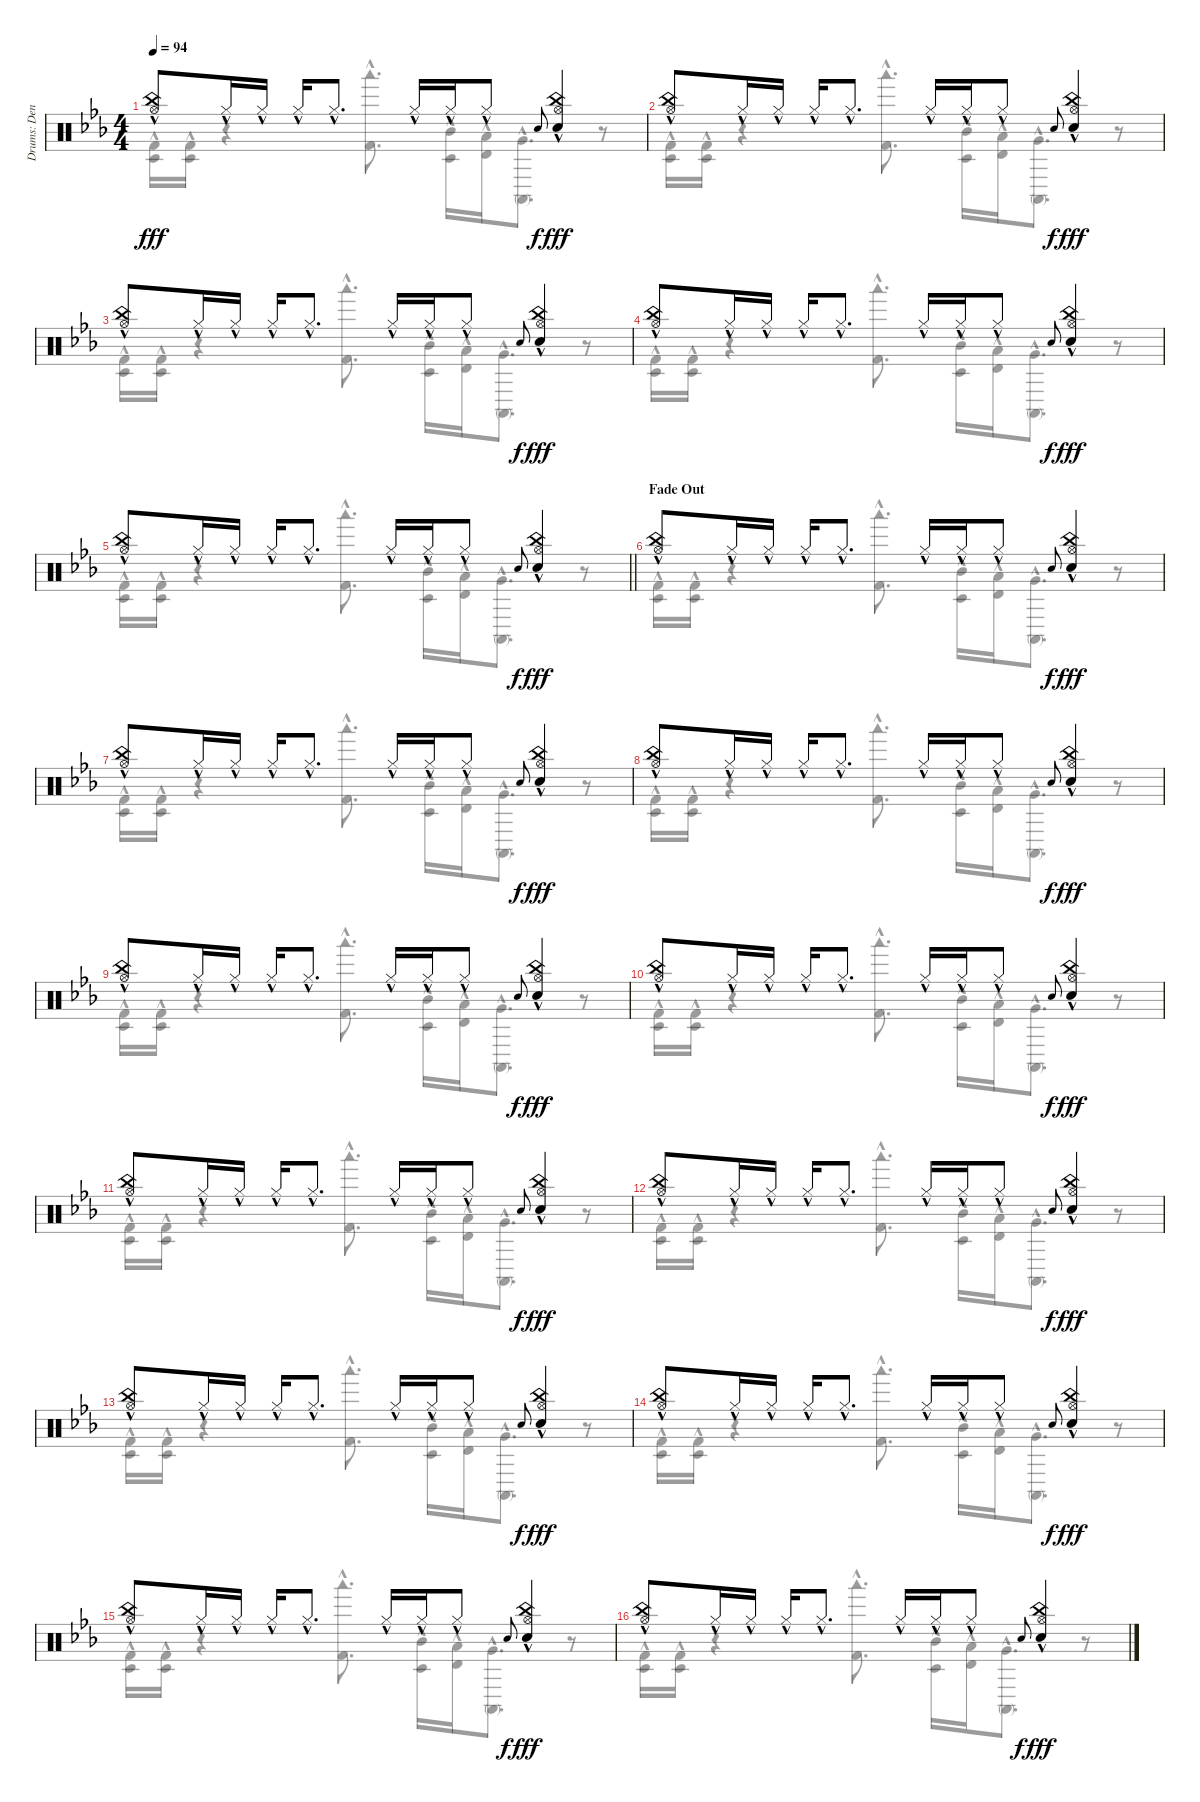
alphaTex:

\track ("Drums: Denny" "Drums: Den") {instrument percussion}
\staff {score}
\articulation defaults
\voice
\ts (4 4)
\tempo 94
\clef neutral
\ks eb
("China (hit)"{hac} "Hi-Hat (open)"{hac}).8{dy fff} "Hi-Hat (closed)"{hac}.16 "Hi-Hat (closed)"{hac}.16 "Hi-Hat (closed)"{hac}.16 "Hi-Hat (closed)"{hac}.8{d} "Hi-Hat (closed)"{hac}.16 "Hi-Hat (closed)"{hac}.16 "Hi-Hat (closed)"{hac}.8 "Electric Snare (hit)".8{gr onbeat dy f} ("China (hit)"{hac} "Hi-Hat (open)"{hac} "Snare (hit) 2"{hac}).4{dy fff} |
("China (hit)"{hac} "Hi-Hat (open)"{hac}).8 "Hi-Hat (closed)"{hac}.16 "Hi-Hat (closed)"{hac}.16 "Hi-Hat (closed)"{hac}.16 "Hi-Hat (closed)"{hac}.8{d} "Hi-Hat (closed)"{hac}.16 "Hi-Hat (closed)"{hac}.16 "Hi-Hat (closed)"{hac}.8 "Electric Snare (hit)".8{gr onbeat dy f} ("China (hit)"{hac} "Hi-Hat (open)"{hac} "Snare (hit) 2"{hac}).4{dy fff} |
("China (hit)"{hac} "Hi-Hat (open)"{hac}).8 "Hi-Hat (closed)"{hac}.16 "Hi-Hat (closed)"{hac}.16 "Hi-Hat (closed)"{hac}.16 "Hi-Hat (closed)"{hac}.8{d} "Hi-Hat (closed)"{hac}.16 "Hi-Hat (closed)"{hac}.16 "Hi-Hat (closed)"{hac}.8 "Electric Snare (hit)".8{gr onbeat dy f} ("China (hit)"{hac} "Hi-Hat (open)"{hac} "Snare (hit) 2"{hac}).4{dy fff} |
("China (hit)"{hac} "Hi-Hat (open)"{hac}).8 "Hi-Hat (closed)"{hac}.16 "Hi-Hat (closed)"{hac}.16 "Hi-Hat (closed)"{hac}.16 "Hi-Hat (closed)"{hac}.8{d} "Hi-Hat (closed)"{hac}.16 "Hi-Hat (closed)"{hac}.16 "Hi-Hat (closed)"{hac}.8 "Electric Snare (hit)".8{gr onbeat dy f} ("China (hit)"{hac} "Hi-Hat (open)"{hac} "Snare (hit) 2"{hac}).4{dy fff} |
\barLineRight lightlight
("China (hit)"{hac} "Hi-Hat (open)"{hac}).8 "Hi-Hat (closed)"{hac}.16 "Hi-Hat (closed)"{hac}.16 "Hi-Hat (closed)"{hac}.16 "Hi-Hat (closed)"{hac}.8{d} "Hi-Hat (closed)"{hac}.16 "Hi-Hat (closed)"{hac}.16 "Hi-Hat (closed)"{hac}.8 "Electric Snare (hit)".8{gr onbeat dy f} ("China (hit)"{hac} "Hi-Hat (open)"{hac} "Snare (hit) 2"{hac}).4{dy fff} |
\section ("" "Fade Out")
("China (hit)"{hac} "Hi-Hat (open)"{hac}).8{volume 12} "Hi-Hat (closed)"{hac}.16 "Hi-Hat (closed)"{hac}.16 "Hi-Hat (closed)"{hac}.16 "Hi-Hat (closed)"{hac}.8{d} "Hi-Hat (closed)"{hac}.16 "Hi-Hat (closed)"{hac}.16 "Hi-Hat (closed)"{hac}.8 "Electric Snare (hit)".8{gr onbeat dy f} ("China (hit)"{hac} "Hi-Hat (open)"{hac} "Snare (hit) 2"{hac}).4{dy fff} |
("China (hit)"{hac} "Hi-Hat (open)"{hac}).8 "Hi-Hat (closed)"{hac}.16 "Hi-Hat (closed)"{hac}.16 "Hi-Hat (closed)"{hac}.16 "Hi-Hat (closed)"{hac}.8{d} "Hi-Hat (closed)"{hac}.16 "Hi-Hat (closed)"{hac}.16 "Hi-Hat (closed)"{hac}.8 "Electric Snare (hit)".8{gr onbeat dy f} ("China (hit)"{hac} "Hi-Hat (open)"{hac} "Snare (hit) 2"{hac}).4{dy fff} |
("China (hit)"{hac} "Hi-Hat (open)"{hac}).8 "Hi-Hat (closed)"{hac}.16 "Hi-Hat (closed)"{hac}.16 "Hi-Hat (closed)"{hac}.16 "Hi-Hat (closed)"{hac}.8{d} "Hi-Hat (closed)"{hac}.16 "Hi-Hat (closed)"{hac}.16 "Hi-Hat (closed)"{hac}.8 "Electric Snare (hit)".8{gr onbeat dy f} ("China (hit)"{hac} "Hi-Hat (open)"{hac} "Snare (hit) 2"{hac}).4{dy fff} |
("China (hit)"{hac} "Hi-Hat (open)"{hac}).8 "Hi-Hat (closed)"{hac}.16 "Hi-Hat (closed)"{hac}.16 "Hi-Hat (closed)"{hac}.16 "Hi-Hat (closed)"{hac}.8{d} "Hi-Hat (closed)"{hac}.16 "Hi-Hat (closed)"{hac}.16 "Hi-Hat (closed)"{hac}.8 "Electric Snare (hit)".8{gr onbeat dy f} ("China (hit)"{hac} "Hi-Hat (open)"{hac} "Snare (hit) 2"{hac}).4{dy fff} |
("China (hit)"{hac} "Hi-Hat (open)"{hac}).8{volume 8} "Hi-Hat (closed)"{hac}.16 "Hi-Hat (closed)"{hac}.16 "Hi-Hat (closed)"{hac}.16 "Hi-Hat (closed)"{hac}.8{d} "Hi-Hat (closed)"{hac}.16 "Hi-Hat (closed)"{hac}.16 "Hi-Hat (closed)"{hac}.8 "Electric Snare (hit)".8{gr onbeat dy f} ("China (hit)"{hac} "Hi-Hat (open)"{hac} "Snare (hit) 2"{hac}).4{dy fff} |
("China (hit)"{hac} "Hi-Hat (open)"{hac}).8 "Hi-Hat (closed)"{hac}.16 "Hi-Hat (closed)"{hac}.16 "Hi-Hat (closed)"{hac}.16 "Hi-Hat (closed)"{hac}.8{d} "Hi-Hat (closed)"{hac}.16 "Hi-Hat (closed)"{hac}.16 "Hi-Hat (closed)"{hac}.8 "Electric Snare (hit)".8{gr onbeat dy f} ("China (hit)"{hac} "Hi-Hat (open)"{hac} "Snare (hit) 2"{hac}).4{dy fff} |
("China (hit)"{hac} "Hi-Hat (open)"{hac}).8 "Hi-Hat (closed)"{hac}.16 "Hi-Hat (closed)"{hac}.16 "Hi-Hat (closed)"{hac}.16 "Hi-Hat (closed)"{hac}.8{d} "Hi-Hat (closed)"{hac}.16 "Hi-Hat (closed)"{hac}.16 "Hi-Hat (closed)"{hac}.8 "Electric Snare (hit)".8{gr onbeat dy f} ("China (hit)"{hac} "Hi-Hat (open)"{hac} "Snare (hit) 2"{hac}).4{dy fff} |
("China (hit)"{hac} "Hi-Hat (open)"{hac}).8 "Hi-Hat (closed)"{hac}.16 "Hi-Hat (closed)"{hac}.16 "Hi-Hat (closed)"{hac}.16 "Hi-Hat (closed)"{hac}.8{d} "Hi-Hat (closed)"{hac}.16 "Hi-Hat (closed)"{hac}.16 "Hi-Hat (closed)"{hac}.8 "Electric Snare (hit)".8{gr onbeat dy f} ("China (hit)"{hac} "Hi-Hat (open)"{hac} "Snare (hit) 2"{hac}).4{dy fff} |
("China (hit)"{hac} "Hi-Hat (open)"{hac}).8{volume 4} "Hi-Hat (closed)"{hac}.16 "Hi-Hat (closed)"{hac}.16 "Hi-Hat (closed)"{hac}.16 "Hi-Hat (closed)"{hac}.8{d} "Hi-Hat (closed)"{hac}.16 "Hi-Hat (closed)"{hac}.16 "Hi-Hat (closed)"{hac}.8 "Electric Snare (hit)".8{gr onbeat dy f} ("China (hit)"{hac} "Hi-Hat (open)"{hac} "Snare (hit) 2"{hac}).4{dy fff} |
("China (hit)"{hac} "Hi-Hat (open)"{hac}).8 "Hi-Hat (closed)"{hac}.16 "Hi-Hat (closed)"{hac}.16 "Hi-Hat (closed)"{hac}.16 "Hi-Hat (closed)"{hac}.8{d} "Hi-Hat (closed)"{hac}.16 "Hi-Hat (closed)"{hac}.16 "Hi-Hat (closed)"{hac}.8 "Electric Snare (hit)".8{gr onbeat dy f} ("China (hit)"{hac} "Hi-Hat (open)"{hac} "Snare (hit) 2"{hac}).4{dy fff} |
("China (hit)"{hac} "Hi-Hat (open)"{hac}).8 "Hi-Hat (closed)"{hac}.16 "Hi-Hat (closed)"{hac}.16 "Hi-Hat (closed)"{hac}.16 "Hi-Hat (closed)"{hac}.8{d} "Hi-Hat (closed)"{hac}.16 "Hi-Hat (closed)"{hac}.16 "Hi-Hat (closed)"{hac}.8 "Electric Snare (hit)".8{gr onbeat dy f} ("China (hit)"{hac} "Hi-Hat (open)"{hac} "Snare (hit) 2"{hac}).4{dy fff}
\voice
\clef neutral
\ottava regular
\simile none
\ks eb
("Kick (hit) 2"{hac} "Timbale low (hit)"{hac}).16{dy fff} ("Kick (hit) 2"{hac} "Timbale low (hit)"{hac}).16 r.4 ("Kick (hit) 2"{hac} "Woodblock low (hit)"{hac}).8{d} ("Mid Tom (hit)"{hac} "Timbale low (hit)"{hac}).16 ("Low Tom (hit)"{hac} "Timbale high (hit)"{hac}).16 ("Very Low Tom (hit)"{hac} "Conga high (mute)"{hac}).8{d} r.8 |
("Kick (hit) 2"{hac} "Timbale low (hit)"{hac}).16 ("Kick (hit) 2"{hac} "Timbale low (hit)"{hac}).16 r.4 ("Kick (hit) 2"{hac} "Woodblock low (hit)"{hac}).8{d} ("Mid Tom (hit)"{hac} "Timbale low (hit)"{hac}).16 ("Low Tom (hit)"{hac} "Timbale high (hit)"{hac}).16 ("Very Low Tom (hit)"{hac} "Conga high (mute)"{hac}).8{d} r.8 |
("Kick (hit) 2"{hac} "Timbale low (hit)"{hac}).16 ("Kick (hit) 2"{hac} "Timbale low (hit)"{hac}).16 r.4 ("Kick (hit) 2"{hac} "Woodblock low (hit)"{hac}).8{d} ("Mid Tom (hit)"{hac} "Timbale low (hit)"{hac}).16 ("Low Tom (hit)"{hac} "Timbale high (hit)"{hac}).16 ("Very Low Tom (hit)"{hac} "Conga high (mute)"{hac}).8{d} r.8 |
("Kick (hit) 2"{hac} "Timbale low (hit)"{hac}).16 ("Kick (hit) 2"{hac} "Timbale low (hit)"{hac}).16 r.4 ("Kick (hit) 2"{hac} "Woodblock low (hit)"{hac}).8{d} ("Mid Tom (hit)"{hac} "Timbale low (hit)"{hac}).16 ("Low Tom (hit)"{hac} "Timbale high (hit)"{hac}).16 ("Very Low Tom (hit)"{hac} "Conga high (mute)"{hac}).8{d} r.8 |
\barLineRight lightlight
("Kick (hit) 2"{hac} "Timbale low (hit)"{hac}).16 ("Kick (hit) 2"{hac} "Timbale low (hit)"{hac}).16 r.4 ("Kick (hit) 2"{hac} "Woodblock low (hit)"{hac}).8{d} ("Mid Tom (hit)"{hac} "Timbale low (hit)"{hac}).16 ("Low Tom (hit)"{hac} "Timbale high (hit)"{hac}).16 ("Very Low Tom (hit)"{hac} "Conga high (mute)"{hac}).8{d} r.8 |
("Kick (hit) 2"{hac} "Timbale low (hit)"{hac}).16 ("Kick (hit) 2"{hac} "Timbale low (hit)"{hac}).16 r.4 ("Kick (hit) 2"{hac} "Woodblock low (hit)"{hac}).8{d} ("Mid Tom (hit)"{hac} "Timbale low (hit)"{hac}).16 ("Low Tom (hit)"{hac} "Timbale high (hit)"{hac}).16 ("Very Low Tom (hit)"{hac} "Conga high (mute)"{hac}).8{d} r.8 |
("Kick (hit) 2"{hac} "Timbale low (hit)"{hac}).16 ("Kick (hit) 2"{hac} "Timbale low (hit)"{hac}).16 r.4 ("Kick (hit) 2"{hac} "Woodblock low (hit)"{hac}).8{d} ("Mid Tom (hit)"{hac} "Timbale low (hit)"{hac}).16 ("Low Tom (hit)"{hac} "Timbale high (hit)"{hac}).16 ("Very Low Tom (hit)"{hac} "Conga high (mute)"{hac}).8{d} r.8 |
("Kick (hit) 2"{hac} "Timbale low (hit)"{hac}).16 ("Kick (hit) 2"{hac} "Timbale low (hit)"{hac}).16 r.4 ("Kick (hit) 2"{hac} "Woodblock low (hit)"{hac}).8{d} ("Mid Tom (hit)"{hac} "Timbale low (hit)"{hac}).16 ("Low Tom (hit)"{hac} "Timbale high (hit)"{hac}).16 ("Very Low Tom (hit)"{hac} "Conga high (mute)"{hac}).8{d} r.8 |
("Kick (hit) 2"{hac} "Timbale low (hit)"{hac}).16 ("Kick (hit) 2"{hac} "Timbale low (hit)"{hac}).16 r.4 ("Kick (hit) 2"{hac} "Woodblock low (hit)"{hac}).8{d} ("Mid Tom (hit)"{hac} "Timbale low (hit)"{hac}).16 ("Low Tom (hit)"{hac} "Timbale high (hit)"{hac}).16 ("Very Low Tom (hit)"{hac} "Conga high (mute)"{hac}).8{d} r.8 |
("Kick (hit) 2"{hac} "Timbale low (hit)"{hac}).16 ("Kick (hit) 2"{hac} "Timbale low (hit)"{hac}).16 r.4 ("Kick (hit) 2"{hac} "Woodblock low (hit)"{hac}).8{d} ("Mid Tom (hit)"{hac} "Timbale low (hit)"{hac}).16 ("Low Tom (hit)"{hac} "Timbale high (hit)"{hac}).16 ("Very Low Tom (hit)"{hac} "Conga high (mute)"{hac}).8{d} r.8 |
("Kick (hit) 2"{hac} "Timbale low (hit)"{hac}).16 ("Kick (hit) 2"{hac} "Timbale low (hit)"{hac}).16 r.4 ("Kick (hit) 2"{hac} "Woodblock low (hit)"{hac}).8{d} ("Mid Tom (hit)"{hac} "Timbale low (hit)"{hac}).16 ("Low Tom (hit)"{hac} "Timbale high (hit)"{hac}).16 ("Very Low Tom (hit)"{hac} "Conga high (mute)"{hac}).8{d} r.8 |
("Kick (hit) 2"{hac} "Timbale low (hit)"{hac}).16 ("Kick (hit) 2"{hac} "Timbale low (hit)"{hac}).16 r.4 ("Kick (hit) 2"{hac} "Woodblock low (hit)"{hac}).8{d} ("Mid Tom (hit)"{hac} "Timbale low (hit)"{hac}).16 ("Low Tom (hit)"{hac} "Timbale high (hit)"{hac}).16 ("Very Low Tom (hit)"{hac} "Conga high (mute)"{hac}).8{d} r.8 |
("Kick (hit) 2"{hac} "Timbale low (hit)"{hac}).16 ("Kick (hit) 2"{hac} "Timbale low (hit)"{hac}).16 r.4 ("Kick (hit) 2"{hac} "Woodblock low (hit)"{hac}).8{d} ("Mid Tom (hit)"{hac} "Timbale low (hit)"{hac}).16 ("Low Tom (hit)"{hac} "Timbale high (hit)"{hac}).16 ("Very Low Tom (hit)"{hac} "Conga high (mute)"{hac}).8{d} r.8 |
("Kick (hit) 2"{hac} "Timbale low (hit)"{hac}).16 ("Kick (hit) 2"{hac} "Timbale low (hit)"{hac}).16 r.4 ("Kick (hit) 2"{hac} "Woodblock low (hit)"{hac}).8{d} ("Mid Tom (hit)"{hac} "Timbale low (hit)"{hac}).16 ("Low Tom (hit)"{hac} "Timbale high (hit)"{hac}).16 ("Very Low Tom (hit)"{hac} "Conga high (mute)"{hac}).8{d} r.8 |
("Kick (hit) 2"{hac} "Timbale low (hit)"{hac}).16 ("Kick (hit) 2"{hac} "Timbale low (hit)"{hac}).16 r.4 ("Kick (hit) 2"{hac} "Woodblock low (hit)"{hac}).8{d} ("Mid Tom (hit)"{hac} "Timbale low (hit)"{hac}).16 ("Low Tom (hit)"{hac} "Timbale high (hit)"{hac}).16 ("Very Low Tom (hit)"{hac} "Conga high (mute)"{hac}).8{d} r.8 |
("Kick (hit) 2"{hac} "Timbale low (hit)"{hac}).16 ("Kick (hit) 2"{hac} "Timbale low (hit)"{hac}).16 r.4 ("Kick (hit) 2"{hac} "Woodblock low (hit)"{hac}).8{d} ("Mid Tom (hit)"{hac} "Timbale low (hit)"{hac}).16 ("Low Tom (hit)"{hac} "Timbale high (hit)"{hac}).16 ("Very Low Tom (hit)"{hac} "Conga high (mute)"{hac}).8{d} r.8
